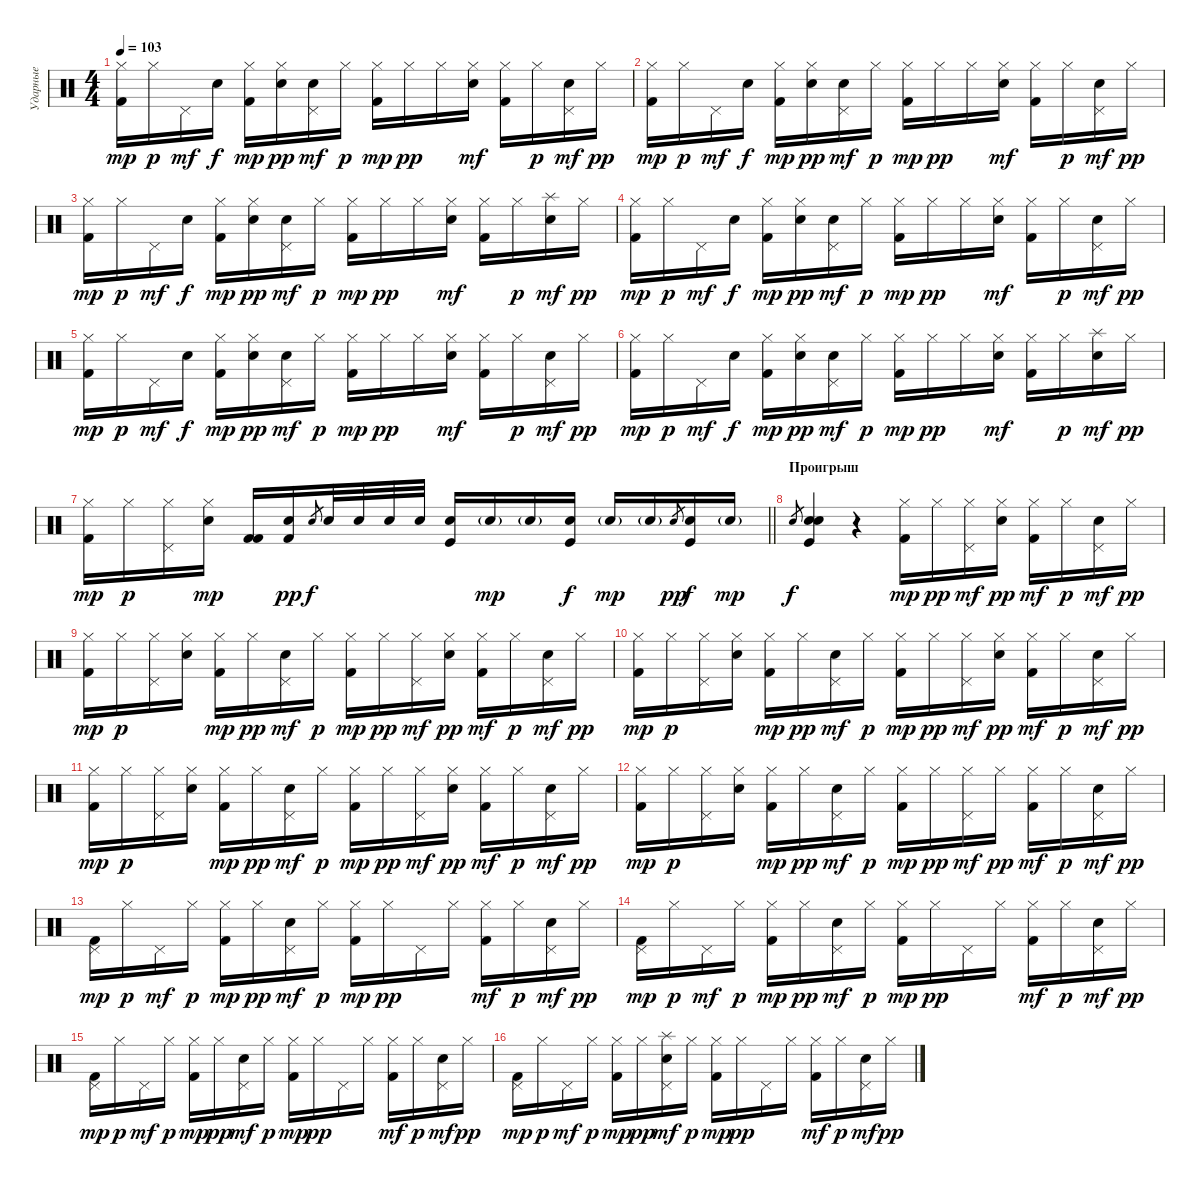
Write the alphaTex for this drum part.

\track ("Ударные" "Ударные") {instrument percussion}
\staff {score}
\articulation defaults
\ts (4 4)
\tempo 103
\clef neutral
\ks c
("Hi-Hat (closed)" "Kick (hit) 2").16{dy mp} "Hi-Hat (closed)".16{dy p} "Pedal Hi-Hat (hit)".16{dy mf} "Electric Snare (hit)".16{dy f} ("Kick (hit) 2" "Hi-Hat (closed)").16{dy mp} ("Electric Snare (hit)" "Hi-Hat (closed)").16{dy pp} ("Electric Snare (hit)" "Pedal Hi-Hat (hit)").16{dy mf} "Hi-Hat (closed)".16{dy p} ("Hi-Hat (closed)" "Kick (hit) 2").16{dy mp} "Hi-Hat (closed)".16{dy pp} "Hi-Hat (closed)".16 ("Electric Snare (hit)" "Hi-Hat (closed)").16{dy mf} ("Hi-Hat (closed)" "Kick (hit) 2").16 "Hi-Hat (closed)".16{dy p} ("Electric Snare (hit)" "Pedal Hi-Hat (hit)").16{dy mf} "Hi-Hat (closed)".16{dy pp} |
("Hi-Hat (closed)" "Kick (hit) 2").16{dy mp} "Hi-Hat (closed)".16{dy p} "Pedal Hi-Hat (hit)".16{dy mf} "Electric Snare (hit)".16{dy f} ("Kick (hit) 2" "Hi-Hat (closed)").16{dy mp} ("Electric Snare (hit)" "Hi-Hat (closed)").16{dy pp} ("Electric Snare (hit)" "Pedal Hi-Hat (hit)").16{dy mf} "Hi-Hat (closed)".16{dy p} ("Hi-Hat (closed)" "Kick (hit) 2").16{dy mp} "Hi-Hat (closed)".16{dy pp} "Hi-Hat (closed)".16 ("Electric Snare (hit)" "Hi-Hat (closed)").16{dy mf} ("Hi-Hat (closed)" "Kick (hit) 2").16 "Hi-Hat (closed)".16{dy p} ("Electric Snare (hit)" "Pedal Hi-Hat (hit)").16{dy mf} "Hi-Hat (closed)".16{dy pp} |
("Hi-Hat (closed)" "Kick (hit) 2").16{dy mp} "Hi-Hat (closed)".16{dy p} "Pedal Hi-Hat (hit)".16{dy mf} "Electric Snare (hit)".16{dy f} ("Kick (hit) 2" "Hi-Hat (closed)").16{dy mp} ("Electric Snare (hit)" "Hi-Hat (closed)").16{dy pp} ("Electric Snare (hit)" "Pedal Hi-Hat (hit)").16{dy mf} "Hi-Hat (closed)".16{dy p} ("Hi-Hat (closed)" "Kick (hit) 2").16{dy mp} "Hi-Hat (closed)".16{dy pp} "Hi-Hat (closed)".16 ("Electric Snare (hit)" "Hi-Hat (closed)").16{dy mf} ("Hi-Hat (closed)" "Kick (hit) 2").16 "Hi-Hat (closed)".16{dy p} ("Electric Snare (hit)" "Splash (hit)").16{dy mf} "Hi-Hat (closed)".16{dy pp} |
("Hi-Hat (closed)" "Kick (hit) 2").16{dy mp} "Hi-Hat (closed)".16{dy p} "Pedal Hi-Hat (hit)".16{dy mf} "Electric Snare (hit)".16{dy f} ("Kick (hit) 2" "Hi-Hat (closed)").16{dy mp} ("Electric Snare (hit)" "Hi-Hat (closed)").16{dy pp} ("Electric Snare (hit)" "Pedal Hi-Hat (hit)").16{dy mf} "Hi-Hat (closed)".16{dy p} ("Hi-Hat (closed)" "Kick (hit) 2").16{dy mp} "Hi-Hat (closed)".16{dy pp} "Hi-Hat (closed)".16 ("Electric Snare (hit)" "Hi-Hat (closed)").16{dy mf} ("Hi-Hat (closed)" "Kick (hit) 2").16 "Hi-Hat (closed)".16{dy p} ("Electric Snare (hit)" "Pedal Hi-Hat (hit)").16{dy mf} "Hi-Hat (closed)".16{dy pp} |
("Hi-Hat (closed)" "Kick (hit) 2").16{dy mp} "Hi-Hat (closed)".16{dy p} "Pedal Hi-Hat (hit)".16{dy mf} "Electric Snare (hit)".16{dy f} ("Kick (hit) 2" "Hi-Hat (closed)").16{dy mp} ("Electric Snare (hit)" "Hi-Hat (closed)").16{dy pp} ("Electric Snare (hit)" "Pedal Hi-Hat (hit)").16{dy mf} "Hi-Hat (closed)".16{dy p} ("Hi-Hat (closed)" "Kick (hit) 2").16{dy mp} "Hi-Hat (closed)".16{dy pp} "Hi-Hat (closed)".16 ("Electric Snare (hit)" "Hi-Hat (closed)").16{dy mf} ("Hi-Hat (closed)" "Kick (hit) 2").16 "Hi-Hat (closed)".16{dy p} ("Electric Snare (hit)" "Pedal Hi-Hat (hit)").16{dy mf} "Hi-Hat (closed)".16{dy pp} |
("Hi-Hat (closed)" "Kick (hit) 2").16{dy mp} "Hi-Hat (closed)".16{dy p} "Pedal Hi-Hat (hit)".16{dy mf} "Electric Snare (hit)".16{dy f} ("Kick (hit) 2" "Hi-Hat (closed)").16{dy mp} ("Electric Snare (hit)" "Hi-Hat (closed)").16{dy pp} ("Electric Snare (hit)" "Pedal Hi-Hat (hit)").16{dy mf} "Hi-Hat (closed)".16{dy p} ("Hi-Hat (closed)" "Kick (hit) 2").16{dy mp} "Hi-Hat (closed)".16{dy pp} "Hi-Hat (closed)".16 ("Electric Snare (hit)" "Hi-Hat (closed)").16{dy mf} ("Hi-Hat (closed)" "Kick (hit) 2").16 "Hi-Hat (closed)".16{dy p} ("Electric Snare (hit)" "Splash (hit)").16{dy mf} "Hi-Hat (closed)".16{dy pp} |
\barLineRight lightlight
("Hi-Hat (closed)" "Kick (hit) 2").16{dy mp} "Hi-Hat (closed)".16{dy p} ("Pedal Hi-Hat (hit)" "Hi-Hat (closed)").16 ("Electric Snare (hit)" "Hi-Hat (closed)").16{dy mp} ("Kick (hit) 2" "Kick (hit) 2").16 ("Electric Snare (hit)" "Kick (hit) 2").16{dy pp} "Electric Snare (hit)".8{gr dy f} "Electric Snare (hit)".32 "Electric Snare (hit)".32 "Electric Snare (hit)".32 "Electric Snare (hit)".32 ("Electric Snare (hit)" "Kick (hit)").16 "Electric Snare (hit)"{g}.16{dy mp} "Electric Snare (hit)"{g}.16 ("Electric Snare (hit)" "Kick (hit)").16{dy f} "Electric Snare (hit)"{g}.16{dy mp} "Electric Snare (hit)"{g}.16 "Electric Snare (hit)".8{gr dy pp} ("Electric Snare (hit)" "Kick (hit)").16{dy f} "Electric Snare (hit)"{g}.16{dy mp} |
\section ("" "Проигрыш")
"Electric Snare (hit)".8{gr dy f} ("Electric Snare (hit)" "Electric Snare (hit)" "Kick (hit)").4 r.4 ("Hi-Hat (closed)" "Kick (hit) 2").16{dy mp} "Hi-Hat (closed)".16{dy pp} ("Hi-Hat (closed)" "Pedal Hi-Hat (hit)").16{dy mf} ("Electric Snare (hit)" "Hi-Hat (closed)").16{dy pp} ("Hi-Hat (closed)" "Kick (hit) 2").16{dy mf} "Hi-Hat (closed)".16{dy p} ("Electric Snare (hit)" "Pedal Hi-Hat (hit)").16{dy mf} "Hi-Hat (closed)".16{dy pp} |
("Hi-Hat (closed)" "Kick (hit) 2").16{dy mp} "Hi-Hat (closed)".16{dy p} ("Pedal Hi-Hat (hit)" "Hi-Hat (closed)").16 ("Electric Snare (hit)" "Hi-Hat (closed)").16 ("Kick (hit) 2" "Hi-Hat (closed)").16{dy mp} "Hi-Hat (closed)".16{dy pp} ("Electric Snare (hit)" "Pedal Hi-Hat (hit)").16{dy mf} "Hi-Hat (closed)".16{dy p} ("Hi-Hat (closed)" "Kick (hit) 2").16{dy mp} "Hi-Hat (closed)".16{dy pp} ("Hi-Hat (closed)" "Pedal Hi-Hat (hit)").16{dy mf} ("Electric Snare (hit)" "Hi-Hat (closed)").16{dy pp} ("Hi-Hat (closed)" "Kick (hit) 2").16{dy mf} "Hi-Hat (closed)".16{dy p} ("Electric Snare (hit)" "Pedal Hi-Hat (hit)").16{dy mf} "Hi-Hat (closed)".16{dy pp} |
("Hi-Hat (closed)" "Kick (hit) 2").16{dy mp} "Hi-Hat (closed)".16{dy p} ("Pedal Hi-Hat (hit)" "Hi-Hat (closed)").16 ("Electric Snare (hit)" "Hi-Hat (closed)").16 ("Kick (hit) 2" "Hi-Hat (closed)").16{dy mp} "Hi-Hat (closed)".16{dy pp} ("Electric Snare (hit)" "Pedal Hi-Hat (hit)").16{dy mf} "Hi-Hat (closed)".16{dy p} ("Hi-Hat (closed)" "Kick (hit) 2").16{dy mp} "Hi-Hat (closed)".16{dy pp} ("Hi-Hat (closed)" "Pedal Hi-Hat (hit)").16{dy mf} ("Electric Snare (hit)" "Hi-Hat (closed)").16{dy pp} ("Hi-Hat (closed)" "Kick (hit) 2").16{dy mf} "Hi-Hat (closed)".16{dy p} ("Electric Snare (hit)" "Pedal Hi-Hat (hit)").16{dy mf} "Hi-Hat (closed)".16{dy pp} |
("Hi-Hat (closed)" "Kick (hit) 2").16{dy mp} "Hi-Hat (closed)".16{dy p} ("Pedal Hi-Hat (hit)" "Hi-Hat (closed)").16 ("Electric Snare (hit)" "Hi-Hat (closed)").16 ("Kick (hit) 2" "Hi-Hat (closed)").16{dy mp} "Hi-Hat (closed)".16{dy pp} ("Electric Snare (hit)" "Pedal Hi-Hat (hit)").16{dy mf} "Hi-Hat (closed)".16{dy p} ("Hi-Hat (closed)" "Kick (hit) 2").16{dy mp} "Hi-Hat (closed)".16{dy pp} ("Hi-Hat (closed)" "Pedal Hi-Hat (hit)").16{dy mf} ("Electric Snare (hit)" "Hi-Hat (closed)").16{dy pp} ("Hi-Hat (closed)" "Kick (hit) 2").16{dy mf} "Hi-Hat (closed)".16{dy p} ("Electric Snare (hit)" "Pedal Hi-Hat (hit)").16{dy mf} "Hi-Hat (closed)".16{dy pp} |
("Hi-Hat (closed)" "Kick (hit) 2").16{dy mp} "Hi-Hat (closed)".16{dy p} ("Pedal Hi-Hat (hit)" "Hi-Hat (closed)").16 ("Electric Snare (hit)" "Hi-Hat (closed)").16 ("Kick (hit) 2" "Hi-Hat (closed)").16{dy mp} "Hi-Hat (closed)".16{dy pp} ("Electric Snare (hit)" "Pedal Hi-Hat (hit)").16{dy mf} "Hi-Hat (closed)".16{dy p} ("Hi-Hat (closed)" "Kick (hit) 2").16{dy mp} "Hi-Hat (closed)".16{dy pp} ("Hi-Hat (closed)" "Pedal Hi-Hat (hit)").16{dy mf} "Hi-Hat (closed)".16{dy pp} ("Hi-Hat (closed)" "Kick (hit) 2").16{dy mf} "Hi-Hat (closed)".16{dy p} ("Electric Snare (hit)" "Pedal Hi-Hat (hit)").16{dy mf} "Hi-Hat (closed)".16{dy pp} |
("Pedal Hi-Hat (hit)" "Kick (hit) 2").16{dy mp} "Hi-Hat (closed)".16{dy p} "Pedal Hi-Hat (hit)".16{dy mf} "Hi-Hat (closed)".16{dy p} ("Kick (hit) 2" "Hi-Hat (closed)").16{dy mp} "Hi-Hat (closed)".16{dy pp} ("Electric Snare (hit)" "Pedal Hi-Hat (hit)").16{dy mf} "Hi-Hat (closed)".16{dy p} ("Hi-Hat (closed)" "Kick (hit) 2").16{dy mp} "Hi-Hat (closed)".16{dy pp} "Pedal Hi-Hat (hit)".16 "Hi-Hat (closed)".16 ("Hi-Hat (closed)" "Kick (hit) 2").16{dy mf} "Hi-Hat (closed)".16{dy p} ("Electric Snare (hit)" "Pedal Hi-Hat (hit)").16{dy mf} "Hi-Hat (closed)".16{dy pp} |
("Pedal Hi-Hat (hit)" "Kick (hit) 2").16{dy mp} "Hi-Hat (closed)".16{dy p} "Pedal Hi-Hat (hit)".16{dy mf} "Hi-Hat (closed)".16{dy p} ("Kick (hit) 2" "Hi-Hat (closed)").16{dy mp} "Hi-Hat (closed)".16{dy pp} ("Electric Snare (hit)" "Pedal Hi-Hat (hit)").16{dy mf} "Hi-Hat (closed)".16{dy p} ("Hi-Hat (closed)" "Kick (hit) 2").16{dy mp} "Hi-Hat (closed)".16{dy pp} "Pedal Hi-Hat (hit)".16 "Hi-Hat (closed)".16 ("Hi-Hat (closed)" "Kick (hit) 2").16{dy mf} "Hi-Hat (closed)".16{dy p} ("Electric Snare (hit)" "Pedal Hi-Hat (hit)").16{dy mf} "Hi-Hat (closed)".16{dy pp} |
("Pedal Hi-Hat (hit)" "Kick (hit) 2").16{dy mp} "Hi-Hat (closed)".16{dy p} "Pedal Hi-Hat (hit)".16{dy mf} "Hi-Hat (closed)".16{dy p} ("Kick (hit) 2" "Hi-Hat (closed)").16{dy mp} "Hi-Hat (closed)".16{dy pp} ("Electric Snare (hit)" "Pedal Hi-Hat (hit)").16{dy mf} "Hi-Hat (closed)".16{dy p} ("Hi-Hat (closed)" "Kick (hit) 2").16{dy mp} "Hi-Hat (closed)".16{dy pp} "Pedal Hi-Hat (hit)".16 "Hi-Hat (closed)".16 ("Hi-Hat (closed)" "Kick (hit) 2").16{dy mf} "Hi-Hat (closed)".16{dy p} ("Electric Snare (hit)" "Pedal Hi-Hat (hit)").16{dy mf} "Hi-Hat (closed)".16{dy pp} |
("Pedal Hi-Hat (hit)" "Kick (hit) 2").16{dy mp} "Hi-Hat (closed)".16{dy p} "Pedal Hi-Hat (hit)".16{dy mf} "Hi-Hat (closed)".16{dy p} ("Kick (hit) 2" "Hi-Hat (closed)").16{dy mp} "Hi-Hat (closed)".16{dy pp} ("Electric Snare (hit)" "Pedal Hi-Hat (hit)" "Splash (hit)").16{dy mf} "Hi-Hat (closed)".16{dy p} ("Hi-Hat (closed)" "Kick (hit) 2").16{dy mp} "Hi-Hat (closed)".16{dy pp} "Pedal Hi-Hat (hit)".16 "Hi-Hat (closed)".16 ("Hi-Hat (closed)" "Kick (hit) 2").16{dy mf} "Hi-Hat (closed)".16{dy p} ("Electric Snare (hit)" "Pedal Hi-Hat (hit)").16{dy mf} "Hi-Hat (closed)".16{dy pp}
